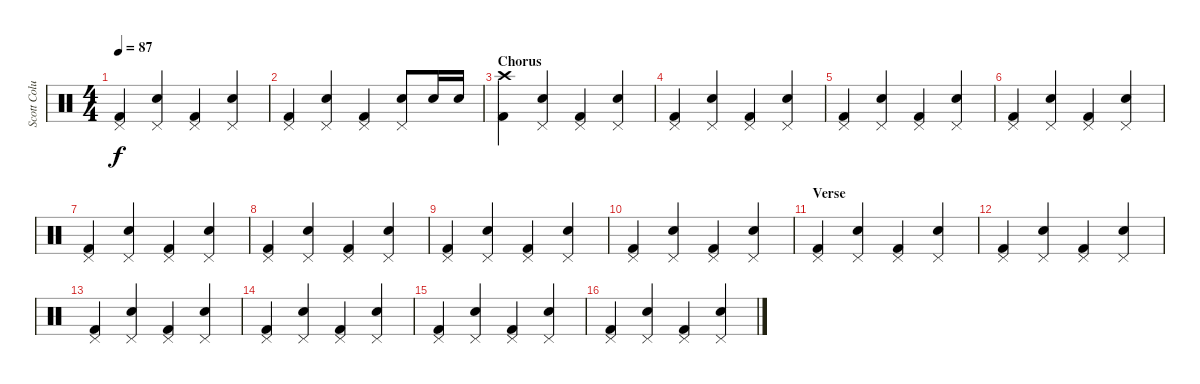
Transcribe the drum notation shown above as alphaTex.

\track ("Scott Columbus" "Scott Colu") {instrument percussion}
\staff {score}
\articulation defaults
\ts (4 4)
\tempo 87
\clef neutral
\ks c
("Pedal Hi-Hat (hit)" "Kick (hit) 2").4{dy f} ("Snare (hit) 2" "Pedal Hi-Hat (hit)").4 ("Pedal Hi-Hat (hit)" "Kick (hit) 2").4 ("Snare (hit) 2" "Pedal Hi-Hat (hit)").4 |
("Pedal Hi-Hat (hit)" "Kick (hit) 2").4 ("Snare (hit) 2" "Pedal Hi-Hat (hit)").4 ("Pedal Hi-Hat (hit)" "Kick (hit) 2").4 ("Snare (hit) 2" "Pedal Hi-Hat (hit)").8 "Snare (hit) 2".16 "Snare (hit) 2".16 |
\section ("" "Chorus")
("Crash high (hit)" "Kick (hit) 2").4 ("Snare (hit) 2" "Pedal Hi-Hat (hit)").4 ("Pedal Hi-Hat (hit)" "Kick (hit) 2").4 ("Snare (hit) 2" "Pedal Hi-Hat (hit)").4 |
("Pedal Hi-Hat (hit)" "Kick (hit) 2").4 ("Snare (hit) 2" "Pedal Hi-Hat (hit)").4 ("Pedal Hi-Hat (hit)" "Kick (hit) 2").4 ("Snare (hit) 2" "Pedal Hi-Hat (hit)").4 |
("Pedal Hi-Hat (hit)" "Kick (hit) 2").4 ("Snare (hit) 2" "Pedal Hi-Hat (hit)").4 ("Pedal Hi-Hat (hit)" "Kick (hit) 2").4 ("Snare (hit) 2" "Pedal Hi-Hat (hit)").4 |
("Pedal Hi-Hat (hit)" "Kick (hit) 2").4 ("Snare (hit) 2" "Pedal Hi-Hat (hit)").4 ("Pedal Hi-Hat (hit)" "Kick (hit) 2").4 ("Snare (hit) 2" "Pedal Hi-Hat (hit)").4 |
("Pedal Hi-Hat (hit)" "Kick (hit) 2").4 ("Snare (hit) 2" "Pedal Hi-Hat (hit)").4 ("Pedal Hi-Hat (hit)" "Kick (hit) 2").4 ("Snare (hit) 2" "Pedal Hi-Hat (hit)").4 |
("Pedal Hi-Hat (hit)" "Kick (hit) 2").4 ("Snare (hit) 2" "Pedal Hi-Hat (hit)").4 ("Pedal Hi-Hat (hit)" "Kick (hit) 2").4 ("Snare (hit) 2" "Pedal Hi-Hat (hit)").4 |
("Pedal Hi-Hat (hit)" "Kick (hit) 2").4 ("Snare (hit) 2" "Pedal Hi-Hat (hit)").4 ("Pedal Hi-Hat (hit)" "Kick (hit) 2").4 ("Snare (hit) 2" "Pedal Hi-Hat (hit)").4 |
("Pedal Hi-Hat (hit)" "Kick (hit) 2").4 ("Snare (hit) 2" "Pedal Hi-Hat (hit)").4 ("Pedal Hi-Hat (hit)" "Kick (hit) 2").4 ("Snare (hit) 2" "Pedal Hi-Hat (hit)").4 |
\section ("" "Verse")
("Pedal Hi-Hat (hit)" "Kick (hit) 2").4 ("Snare (hit) 2" "Pedal Hi-Hat (hit)").4 ("Pedal Hi-Hat (hit)" "Kick (hit) 2").4 ("Snare (hit) 2" "Pedal Hi-Hat (hit)").4 |
("Pedal Hi-Hat (hit)" "Kick (hit) 2").4 ("Snare (hit) 2" "Pedal Hi-Hat (hit)").4 ("Pedal Hi-Hat (hit)" "Kick (hit) 2").4 ("Snare (hit) 2" "Pedal Hi-Hat (hit)").4 |
("Pedal Hi-Hat (hit)" "Kick (hit) 2").4 ("Snare (hit) 2" "Pedal Hi-Hat (hit)").4 ("Pedal Hi-Hat (hit)" "Kick (hit) 2").4 ("Snare (hit) 2" "Pedal Hi-Hat (hit)").4 |
("Pedal Hi-Hat (hit)" "Kick (hit) 2").4 ("Snare (hit) 2" "Pedal Hi-Hat (hit)").4 ("Pedal Hi-Hat (hit)" "Kick (hit) 2").4 ("Snare (hit) 2" "Pedal Hi-Hat (hit)").4 |
("Pedal Hi-Hat (hit)" "Kick (hit) 2").4 ("Snare (hit) 2" "Pedal Hi-Hat (hit)").4 ("Pedal Hi-Hat (hit)" "Kick (hit) 2").4 ("Snare (hit) 2" "Pedal Hi-Hat (hit)").4 |
("Pedal Hi-Hat (hit)" "Kick (hit) 2").4 ("Snare (hit) 2" "Pedal Hi-Hat (hit)").4 ("Pedal Hi-Hat (hit)" "Kick (hit) 2").4 ("Snare (hit) 2" "Pedal Hi-Hat (hit)").4
